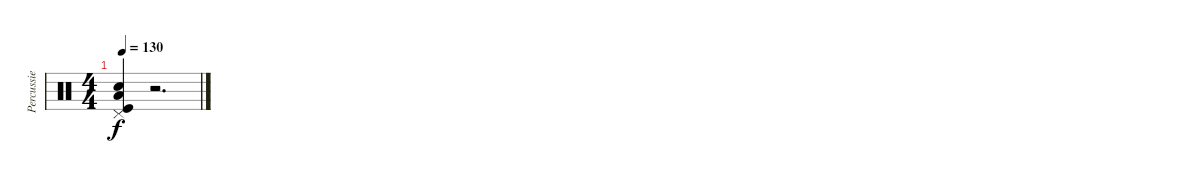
\track ("Percussie" "Percussie") {instrument percussion}
\staff {score}
\articulation defaults
\ts (4 4)
\tempo 130
\clef neutral
\ks c
("Pedal Hi-Hat (hit)" "Electric Snare (hit)" "Low Floor Tom (hit)" "Kick (hit)").4{dy f} r.2{d}
